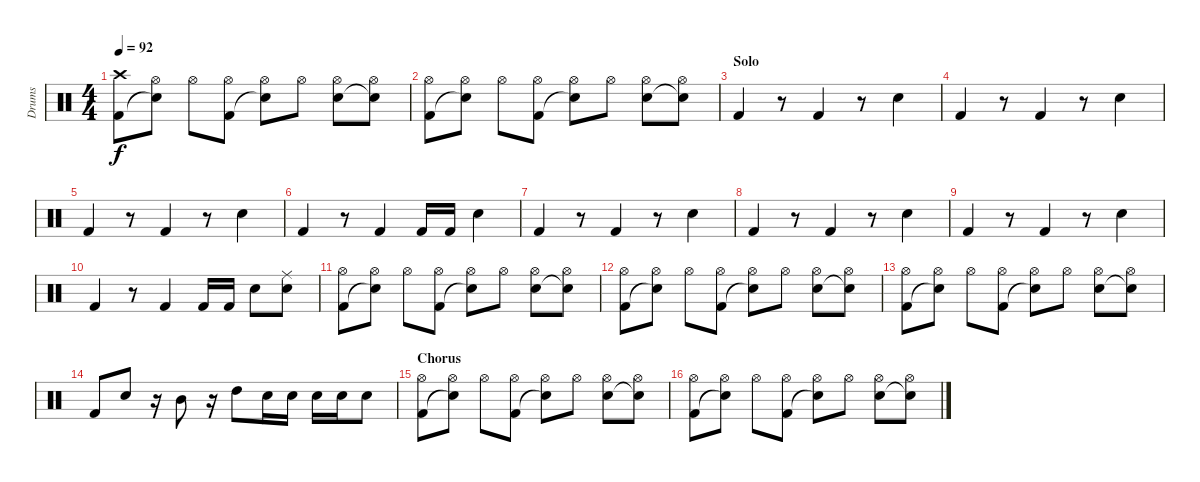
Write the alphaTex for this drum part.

\track ("Drums" "Drums") {instrument percussion}
\staff {score}
\articulation defaults
\ts (4 4)
\tempo 92
\clef neutral
\ks c
("Crash high (hit)" "Kick (hit) 2").8{dy f} ("Hi-Hat (open)" "Snare (hit)"{t}).8 "Hi-Hat (open)".8 ("Hi-Hat (open)" "Kick (hit) 2").8 ("Hi-Hat (open)" "Snare (hit)"{t}).8 "Hi-Hat (open)".8 ("Hi-Hat (open)" "Snare (hit) 2").8 ("Hi-Hat (open)" "Snare (hit)"{t}).8 |
("Hi-Hat (open)" "Kick (hit) 2").8 ("Hi-Hat (open)" "Snare (hit)"{t}).8 "Hi-Hat (open)".8 ("Hi-Hat (open)" "Kick (hit) 2").8 ("Hi-Hat (open)" "Snare (hit)"{t}).8 "Hi-Hat (open)".8 ("Hi-Hat (open)" "Snare (hit) 2").8 ("Hi-Hat (open)" "Snare (hit)"{t}).8 |
\section ("" "Solo")
"Kick (hit) 2".4 r.8 "Kick (hit) 2".4 r.8 "Snare (hit) 2".4 |
"Kick (hit) 2".4 r.8 "Kick (hit) 2".4 r.8 "Snare (hit) 2".4 |
"Kick (hit) 2".4 r.8 "Kick (hit) 2".4 r.8 "Snare (hit) 2".4 |
"Kick (hit) 2".4 r.8 "Kick (hit) 2".4 "Kick (hit) 2".16 "Kick (hit) 2".16 "Snare (hit) 2".4 |
"Kick (hit) 2".4 r.8 "Kick (hit) 2".4 r.8 "Snare (hit) 2".4 |
"Kick (hit) 2".4 r.8 "Kick (hit) 2".4 r.8 "Snare (hit) 2".4 |
"Kick (hit) 2".4 r.8 "Kick (hit) 2".4 r.8 "Snare (hit) 2".4 |
"Kick (hit) 2".4 r.8 "Kick (hit) 2".4 "Kick (hit) 2".16 "Kick (hit) 2".16 "Snare (hit) 2".8 ("Ride (middle)" "Snare (hit)").8 |
("Hi-Hat (open)" "Kick (hit) 2").8 ("Hi-Hat (open)" "Snare (hit)"{t}).8 "Hi-Hat (open)".8 ("Hi-Hat (open)" "Kick (hit) 2").8 ("Hi-Hat (open)" "Snare (hit)"{t}).8 "Hi-Hat (open)".8 ("Hi-Hat (open)" "Snare (hit) 2").8 ("Hi-Hat (open)" "Snare (hit)"{t}).8 |
("Hi-Hat (open)" "Kick (hit) 2").8 ("Hi-Hat (open)" "Snare (hit)"{t}).8 "Hi-Hat (open)".8 ("Hi-Hat (open)" "Kick (hit) 2").8 ("Hi-Hat (open)" "Snare (hit)"{t}).8 "Hi-Hat (open)".8 ("Hi-Hat (open)" "Snare (hit) 2").8 ("Hi-Hat (open)" "Snare (hit)"{t}).8 |
("Hi-Hat (open)" "Kick (hit) 2").8 ("Hi-Hat (open)" "Snare (hit)"{t}).8 "Hi-Hat (open)".8 ("Hi-Hat (open)" "Kick (hit) 2").8 ("Hi-Hat (open)" "Snare (hit)"{t}).8 "Hi-Hat (open)".8 ("Hi-Hat (open)" "Snare (hit) 2").8 ("Hi-Hat (open)" "Snare (hit)"{t}).8 |
"Kick (hit) 2".8 "Snare (hit) 2".8 r.16 "Mid Tom (hit)".8 r.16 "High Tom (hit)".8 "Snare (hit) 2".16 "Snare (hit) 2".16 "Snare (hit) 2".16 "Snare (hit) 2".16 "Snare (hit) 2".8 |
\section ("" "Chorus")
("Hi-Hat (open)" "Kick (hit) 2").8 ("Hi-Hat (open)" "Snare (hit)"{t}).8 "Hi-Hat (open)".8 ("Hi-Hat (open)" "Kick (hit) 2").8 ("Hi-Hat (open)" "Snare (hit)"{t}).8 "Hi-Hat (open)".8 ("Hi-Hat (open)" "Snare (hit) 2").8 ("Hi-Hat (open)" "Snare (hit)"{t}).8 |
("Hi-Hat (open)" "Kick (hit) 2").8 ("Hi-Hat (open)" "Snare (hit)"{t}).8 "Hi-Hat (open)".8 ("Hi-Hat (open)" "Kick (hit) 2").8 ("Hi-Hat (open)" "Snare (hit)"{t}).8 "Hi-Hat (open)".8 ("Hi-Hat (open)" "Snare (hit) 2").8 ("Hi-Hat (open)" "Snare (hit)"{t}).8
